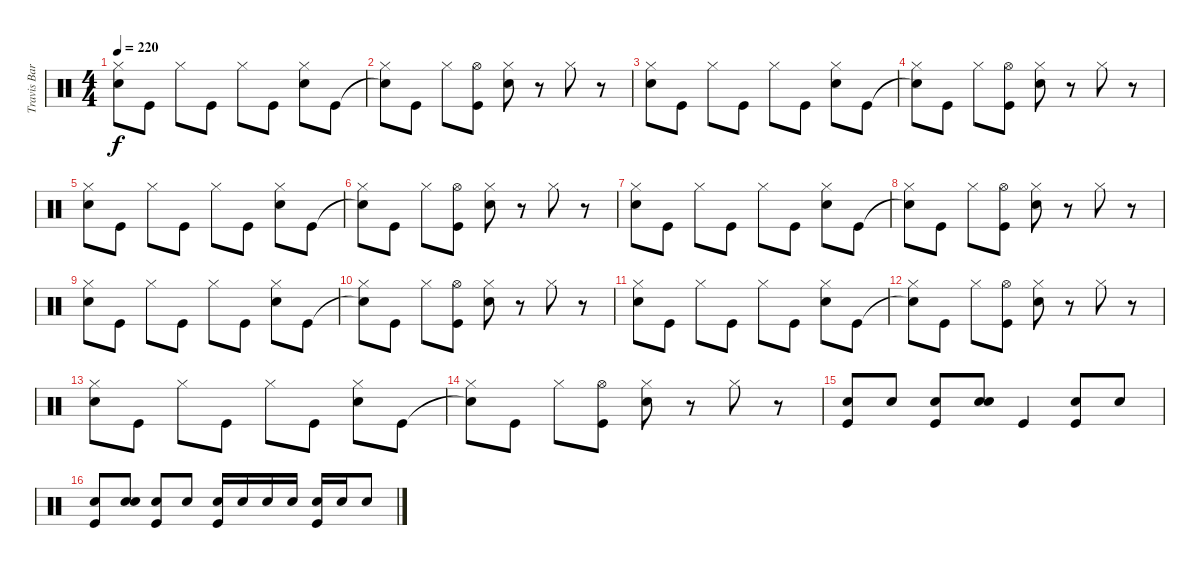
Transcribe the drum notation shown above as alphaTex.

\track ("Travis Barker (Drums)" "Travis Bar") {instrument percussion}
\staff {score}
\articulation defaults
\ts (4 4)
\tempo 220
\clef neutral
\ks c
("Electric Snare (hit)" "Hi-Hat (closed)").8{dy f} "Kick (hit)".8 "Hi-Hat (closed)".8 "Kick (hit)".8 "Hi-Hat (closed)".8 "Kick (hit)".8 ("Electric Snare (hit)" "Hi-Hat (closed)").8 "Kick (hit)".8 |
("Snare (hit)"{t} "Hi-Hat (closed)").8 "Kick (hit)".8 "Hi-Hat (closed)".8 ("Kick (hit)" "Hi-Hat (open)").8 ("Electric Snare (hit)" "Hi-Hat (closed)").8 r.8 "Hi-Hat (closed)".8 r.8 |
("Electric Snare (hit)" "Hi-Hat (closed)").8 "Kick (hit)".8 "Hi-Hat (closed)".8 "Kick (hit)".8 "Hi-Hat (closed)".8 "Kick (hit)".8 ("Electric Snare (hit)" "Hi-Hat (closed)").8 "Kick (hit)".8 |
("Snare (hit)"{t} "Hi-Hat (closed)").8 "Kick (hit)".8 "Hi-Hat (closed)".8 ("Kick (hit)" "Hi-Hat (open)").8 ("Electric Snare (hit)" "Hi-Hat (closed)").8 r.8 "Hi-Hat (closed)".8 r.8 |
("Electric Snare (hit)" "Hi-Hat (closed)").8 "Kick (hit)".8 "Hi-Hat (closed)".8 "Kick (hit)".8 "Hi-Hat (closed)".8 "Kick (hit)".8 ("Electric Snare (hit)" "Hi-Hat (closed)").8 "Kick (hit)".8 |
("Snare (hit)"{t} "Hi-Hat (closed)").8 "Kick (hit)".8 "Hi-Hat (closed)".8 ("Kick (hit)" "Hi-Hat (open)").8 ("Electric Snare (hit)" "Hi-Hat (closed)").8 r.8 "Hi-Hat (closed)".8 r.8 |
("Electric Snare (hit)" "Hi-Hat (closed)").8 "Kick (hit)".8 "Hi-Hat (closed)".8 "Kick (hit)".8 "Hi-Hat (closed)".8 "Kick (hit)".8 ("Electric Snare (hit)" "Hi-Hat (closed)").8 "Kick (hit)".8 |
("Snare (hit)"{t} "Hi-Hat (closed)").8 "Kick (hit)".8 "Hi-Hat (closed)".8 ("Kick (hit)" "Hi-Hat (open)").8 ("Electric Snare (hit)" "Hi-Hat (closed)").8 r.8 "Hi-Hat (closed)".8 r.8 |
("Electric Snare (hit)" "Hi-Hat (closed)").8 "Kick (hit)".8 "Hi-Hat (closed)".8 "Kick (hit)".8 "Hi-Hat (closed)".8 "Kick (hit)".8 ("Electric Snare (hit)" "Hi-Hat (closed)").8 "Kick (hit)".8 |
("Snare (hit)"{t} "Hi-Hat (closed)").8 "Kick (hit)".8 "Hi-Hat (closed)".8 ("Kick (hit)" "Hi-Hat (open)").8 ("Electric Snare (hit)" "Hi-Hat (closed)").8 r.8 "Hi-Hat (closed)".8 r.8 |
("Electric Snare (hit)" "Hi-Hat (closed)").8 "Kick (hit)".8 "Hi-Hat (closed)".8 "Kick (hit)".8 "Hi-Hat (closed)".8 "Kick (hit)".8 ("Electric Snare (hit)" "Hi-Hat (closed)").8 "Kick (hit)".8 |
("Snare (hit)"{t} "Hi-Hat (closed)").8 "Kick (hit)".8 "Hi-Hat (closed)".8 ("Kick (hit)" "Hi-Hat (open)").8 ("Electric Snare (hit)" "Hi-Hat (closed)").8 r.8 "Hi-Hat (closed)".8 r.8 |
("Electric Snare (hit)" "Hi-Hat (closed)").8 "Kick (hit)".8 "Hi-Hat (closed)".8 "Kick (hit)".8 "Hi-Hat (closed)".8 "Kick (hit)".8 ("Electric Snare (hit)" "Hi-Hat (closed)").8 "Kick (hit)".8 |
("Snare (hit)"{t} "Hi-Hat (closed)").8 "Kick (hit)".8 "Hi-Hat (closed)".8 ("Kick (hit)" "Hi-Hat (open)").8 ("Electric Snare (hit)" "Hi-Hat (closed)").8 r.8 "Hi-Hat (closed)".8 r.8 |
("Electric Snare (hit)" "Kick (hit)").8 "Electric Snare (hit)".8 ("Electric Snare (hit)" "Kick (hit)").8 ("Electric Snare (hit)" "Electric Snare (hit)").8 "Kick (hit)".4 ("Electric Snare (hit)" "Kick (hit)").8 "Electric Snare (hit)".8 |
("Electric Snare (hit)" "Kick (hit)").8 ("Electric Snare (hit)" "Electric Snare (hit)").8 ("Electric Snare (hit)" "Kick (hit)").8 "Electric Snare (hit)".8 ("Electric Snare (hit)" "Kick (hit)").16 "Electric Snare (hit)".16 "Electric Snare (hit)".16 "Electric Snare (hit)".16 ("Electric Snare (hit)" "Kick (hit)").16 "Electric Snare (hit)".16 "Electric Snare (hit)".8
